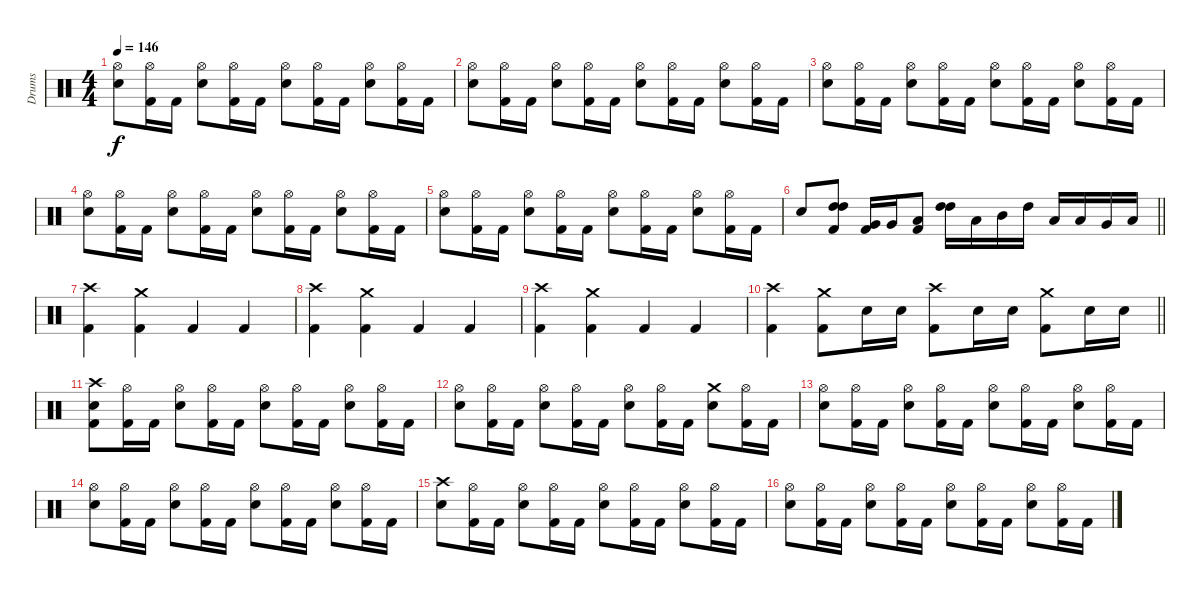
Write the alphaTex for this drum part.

\track ("Drums" "Drums") {instrument percussion}
\staff {score}
\articulation defaults
\ts (4 4)
\tempo 146
\clef neutral
\ks c
("Hi-Hat (open)" "Snare (hit) 2").8{dy f} ("Hi-Hat (open)" "Kick (hit) 2").16 "Kick (hit) 2".16 ("Hi-Hat (open)" "Snare (hit) 2").8 ("Hi-Hat (open)" "Kick (hit) 2").16 "Kick (hit) 2".16 ("Hi-Hat (open)" "Snare (hit) 2").8 ("Hi-Hat (open)" "Kick (hit) 2").16 "Kick (hit) 2".16 ("Hi-Hat (open)" "Snare (hit) 2").8 ("Hi-Hat (open)" "Kick (hit) 2").16 "Kick (hit) 2".16 |
("Hi-Hat (open)" "Snare (hit) 2").8 ("Hi-Hat (open)" "Kick (hit) 2").16 "Kick (hit) 2".16 ("Hi-Hat (open)" "Snare (hit) 2").8 ("Hi-Hat (open)" "Kick (hit) 2").16 "Kick (hit) 2".16 ("Hi-Hat (open)" "Snare (hit) 2").8 ("Hi-Hat (open)" "Kick (hit) 2").16 "Kick (hit) 2".16 ("Hi-Hat (open)" "Snare (hit) 2").8 ("Hi-Hat (open)" "Kick (hit) 2").16 "Kick (hit) 2".16 |
("Hi-Hat (open)" "Snare (hit) 2").8 ("Hi-Hat (open)" "Kick (hit) 2").16 "Kick (hit) 2".16 ("Hi-Hat (open)" "Snare (hit) 2").8 ("Hi-Hat (open)" "Kick (hit) 2").16 "Kick (hit) 2".16 ("Hi-Hat (open)" "Snare (hit) 2").8 ("Hi-Hat (open)" "Kick (hit) 2").16 "Kick (hit) 2".16 ("Hi-Hat (open)" "Snare (hit) 2").8 ("Hi-Hat (open)" "Kick (hit) 2").16 "Kick (hit) 2".16 |
("Hi-Hat (open)" "Snare (hit) 2").8 ("Hi-Hat (open)" "Kick (hit) 2").16 "Kick (hit) 2".16 ("Hi-Hat (open)" "Snare (hit) 2").8 ("Hi-Hat (open)" "Kick (hit) 2").16 "Kick (hit) 2".16 ("Hi-Hat (open)" "Snare (hit) 2").8 ("Hi-Hat (open)" "Kick (hit) 2").16 "Kick (hit) 2".16 ("Hi-Hat (open)" "Snare (hit) 2").8 ("Hi-Hat (open)" "Kick (hit) 2").16 "Kick (hit) 2".16 |
("Hi-Hat (open)" "Snare (hit) 2").8 ("Hi-Hat (open)" "Kick (hit) 2").16 "Kick (hit) 2".16 ("Hi-Hat (open)" "Snare (hit) 2").8 ("Hi-Hat (open)" "Kick (hit) 2").16 "Kick (hit) 2".16 ("Hi-Hat (open)" "Snare (hit) 2").8 ("Hi-Hat (open)" "Kick (hit) 2").16 "Kick (hit) 2".16 ("Hi-Hat (open)" "Snare (hit) 2").8 ("Hi-Hat (open)" "Kick (hit) 2").16 "Kick (hit) 2".16 |
\barLineRight lightlight "Snare (hit) 2".8
("High Tom (hit)" "High Tom (hit)" "Kick (hit) 2").8 ("Very Low Tom (hit)" "Kick (hit) 2").16 "Very Low Tom (hit)".16 ("Low Tom (hit)" "Kick (hit) 2").8 ("High Tom (hit)" "High Tom (hit)").16 "Low Tom (hit)".16 "Mid Tom (hit)".16 "High Tom (hit)".16 "Low Tom (hit)".16 "Low Tom (hit)".16 "Very Low Tom (hit)".16 "Low Floor Tom (hit)".16 |
("Crash high (hit)" "Kick (hit) 2").4 ("Crash medium (hit)" "Kick (hit) 2").4 "Kick (hit) 2".4 "Kick (hit) 2".4 |
("Crash high (hit)" "Kick (hit) 2").4 ("Crash medium (hit)" "Kick (hit) 2").4 "Kick (hit) 2".4 "Kick (hit) 2".4 |
("Crash high (hit)" "Kick (hit) 2").4 ("Crash medium (hit)" "Kick (hit) 2").4 "Kick (hit) 2".4 "Kick (hit) 2".4 |
\barLineRight lightlight
("Crash high (hit)" "Kick (hit) 2").4 ("Crash medium (hit)" "Kick (hit) 2").8 "Snare (hit) 2".16 "Snare (hit) 2".16 ("Crash high (hit)" "Kick (hit) 2").8 "Snare (hit) 2".16 "Snare (hit) 2".16 ("Crash medium (hit)" "Kick (hit) 2").8 "Snare (hit) 2".16 "Snare (hit) 2".16 |
("Crash high (hit)" "Snare (hit) 2" "Kick (hit) 2").8 ("Hi-Hat (open)" "Kick (hit) 2").16 "Kick (hit) 2".16 ("Hi-Hat (open)" "Snare (hit) 2").8 ("Hi-Hat (open)" "Kick (hit) 2").16 "Kick (hit) 2".16 ("Hi-Hat (open)" "Snare (hit) 2").8 ("Hi-Hat (open)" "Kick (hit) 2").16 "Kick (hit) 2".16 ("Hi-Hat (open)" "Snare (hit) 2").8 ("Hi-Hat (open)" "Kick (hit) 2").16 "Kick (hit) 2".16 |
("Hi-Hat (open)" "Snare (hit) 2").8 ("Hi-Hat (open)" "Kick (hit) 2").16 "Kick (hit) 2".16 ("Hi-Hat (open)" "Snare (hit) 2").8 ("Hi-Hat (open)" "Kick (hit) 2").16 "Kick (hit) 2".16 ("Hi-Hat (open)" "Snare (hit) 2").8 ("Hi-Hat (open)" "Kick (hit) 2").16 "Kick (hit) 2".16 ("Crash medium (hit)" "Snare (hit) 2").8 ("Hi-Hat (open)" "Kick (hit) 2").16 "Kick (hit) 2".16 |
("Hi-Hat (open)" "Snare (hit) 2").8 ("Hi-Hat (open)" "Kick (hit) 2").16 "Kick (hit) 2".16 ("Hi-Hat (open)" "Snare (hit) 2").8 ("Hi-Hat (open)" "Kick (hit) 2").16 "Kick (hit) 2".16 ("Hi-Hat (open)" "Snare (hit) 2").8 ("Hi-Hat (open)" "Kick (hit) 2").16 "Kick (hit) 2".16 ("Hi-Hat (open)" "Snare (hit) 2").8 ("Hi-Hat (open)" "Kick (hit) 2").16 "Kick (hit) 2".16 |
("Hi-Hat (open)" "Snare (hit) 2").8 ("Hi-Hat (open)" "Kick (hit) 2").16 "Kick (hit) 2".16 ("Hi-Hat (open)" "Snare (hit) 2").8 ("Hi-Hat (open)" "Kick (hit) 2").16 "Kick (hit) 2".16 ("Hi-Hat (open)" "Snare (hit) 2").8 ("Hi-Hat (open)" "Kick (hit) 2").16 "Kick (hit) 2".16 ("Hi-Hat (open)" "Snare (hit) 2").8 ("Hi-Hat (open)" "Kick (hit) 2").16 "Kick (hit) 2".16 |
("Crash high (hit)" "Snare (hit) 2").8 ("Hi-Hat (open)" "Kick (hit) 2").16 "Kick (hit) 2".16 ("Hi-Hat (open)" "Snare (hit) 2").8 ("Hi-Hat (open)" "Kick (hit) 2").16 "Kick (hit) 2".16 ("Hi-Hat (open)" "Snare (hit) 2").8 ("Hi-Hat (open)" "Kick (hit) 2").16 "Kick (hit) 2".16 ("Hi-Hat (open)" "Snare (hit) 2").8 ("Hi-Hat (open)" "Kick (hit) 2").16 "Kick (hit) 2".16 |
("Hi-Hat (open)" "Snare (hit) 2").8 ("Hi-Hat (open)" "Kick (hit) 2").16 "Kick (hit) 2".16 ("Hi-Hat (open)" "Snare (hit) 2").8 ("Hi-Hat (open)" "Kick (hit) 2").16 "Kick (hit) 2".16 ("Hi-Hat (open)" "Snare (hit) 2").8 ("Hi-Hat (open)" "Kick (hit) 2").16 "Kick (hit) 2".16 ("Hi-Hat (open)" "Snare (hit) 2").8 ("Hi-Hat (open)" "Kick (hit) 2").16 "Kick (hit) 2".16
